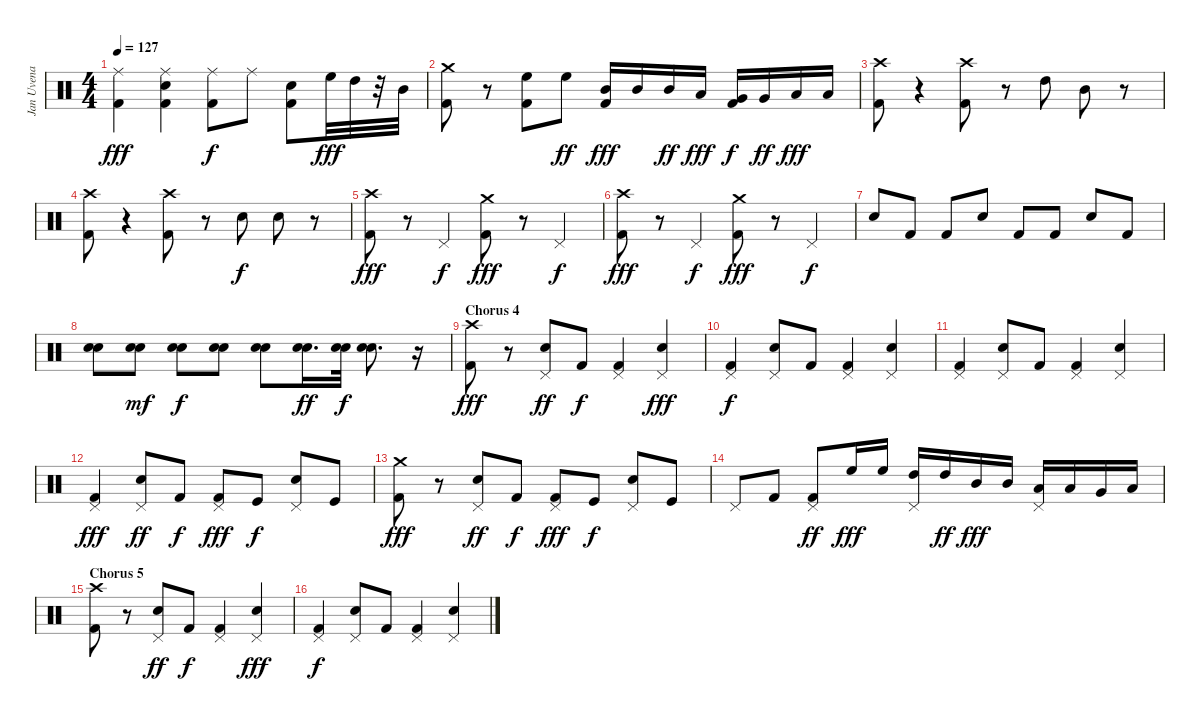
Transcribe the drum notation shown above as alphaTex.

\track ("Jan Uvena" "Jan Uvena") {instrument percussion}
\staff {score}
\articulation defaults
\ts (4 4)
\tempo 127
\clef neutral
\ks c
("Ride (middle)" "Kick (hit) 2").4{dy fff} ("Ride (middle)" "Snare (hit) 2" "Kick (hit) 2").4 ("Ride (middle)" "Kick (hit) 2").8{dy f} "Ride (middle)".8 ("Snare (hit) 2" "Kick (hit) 2").8 "High Floor Tom (hit)".32{dy fff} "High Tom (hit)".32 r.32 "Mid Tom (hit)".32 |
("Crash medium (hit)" "Kick (hit) 2").8 r.8 ("High Floor Tom (hit)" "Kick (hit) 2").8 "High Floor Tom (hit)".8{dy ff} ("Mid Tom (hit)" "Kick (hit) 2").16{dy fff} "Mid Tom (hit)".16 "Mid Tom (hit)".16{dy ff} "Low Tom (hit)".16{dy fff} ("Very Low Tom (hit)" "Kick (hit) 2").16{dy f} "Very Low Tom (hit)".16{dy ff} "Low Floor Tom (hit)".16{dy fff} "Low Floor Tom (hit)".16 |
("Crash high (hit)" "Kick (hit) 2").8 r.4 ("Crash high (hit)" "Kick (hit) 2").8 r.8 "High Tom (hit)".8 "Mid Tom (hit)".8 r.8 |
("Crash high (hit)" "Kick (hit) 2").8 r.4 ("Crash high (hit)" "Kick (hit) 2").8 r.8 "Snare (hit) 2".8{dy f} "Snare (hit) 2".8 r.8 |
("Crash high (hit)" "Kick (hit) 2").8{dy fff} r.8 "Pedal Hi-Hat (hit)".4{dy f} ("Crash medium (hit)" "Kick (hit) 2").8{dy fff} r.8 "Pedal Hi-Hat (hit)".4{dy f} |
("Crash high (hit)" "Kick (hit) 2").8{dy fff} r.8 "Pedal Hi-Hat (hit)".4{dy f} ("Crash medium (hit)" "Kick (hit) 2").8{dy fff} r.8 "Pedal Hi-Hat (hit)".4{dy f} |
"Snare (hit) 2".8 "Kick (hit) 2".8 "Kick (hit) 2".8 "Snare (hit) 2".8 "Kick (hit) 2".8 "Kick (hit) 2".8 "Snare (hit) 2".8 "Kick (hit) 2".8 |
("Snare (hit) 2" "Snare (hit) 2").8 ("Snare (hit) 2" "Snare (hit) 2").8{dy mf} ("Snare (hit) 2" "Snare (hit) 2").8{dy f} ("Snare (hit) 2" "Snare (hit) 2").8 ("Snare (hit) 2" "Snare (hit) 2").8 ("Snare (hit) 2" "Snare (hit) 2").16{d dy ff} ("Snare (hit) 2" "Snare (hit) 2").32{dy f} ("Snare (hit) 2" "Snare (hit) 2").8{d} r.16 |
\section ("" "Chorus 4")
("Crash high (hit)" "Kick (hit) 2").8{dy fff} r.8 ("Pedal Hi-Hat (hit)" "Snare (hit) 2").8{dy ff} "Kick (hit) 2".8{dy f} ("Pedal Hi-Hat (hit)" "Kick (hit) 2").4 ("Pedal Hi-Hat (hit)" "Snare (hit) 2").4{dy fff} |
("Pedal Hi-Hat (hit)" "Kick (hit) 2").4{dy f} ("Pedal Hi-Hat (hit)" "Snare (hit) 2").8 "Kick (hit) 2".8 ("Pedal Hi-Hat (hit)" "Kick (hit) 2").4 ("Pedal Hi-Hat (hit)" "Snare (hit) 2").4 |
("Pedal Hi-Hat (hit)" "Kick (hit) 2").4 ("Pedal Hi-Hat (hit)" "Snare (hit) 2").8 "Kick (hit) 2".8 ("Pedal Hi-Hat (hit)" "Kick (hit) 2").4 ("Pedal Hi-Hat (hit)" "Snare (hit) 2").4 |
("Pedal Hi-Hat (hit)" "Kick (hit) 2").4{dy fff} ("Pedal Hi-Hat (hit)" "Snare (hit) 2").8{dy ff} "Kick (hit) 2".8{dy f} ("Pedal Hi-Hat (hit)" "Kick (hit) 2").8{dy fff} "Kick (hit)".8{dy f} ("Pedal Hi-Hat (hit)" "Snare (hit) 2").8 "Kick (hit)".8 |
("Crash medium (hit)" "Kick (hit) 2").8{dy fff} r.8 ("Pedal Hi-Hat (hit)" "Snare (hit) 2").8{dy ff} "Kick (hit) 2".8{dy f} ("Pedal Hi-Hat (hit)" "Kick (hit) 2").8{dy fff} "Kick (hit)".8{dy f} ("Pedal Hi-Hat (hit)" "Snare (hit) 2").8 "Kick (hit)".8 |
"Pedal Hi-Hat (hit)".8 "Kick (hit) 2".8 ("Pedal Hi-Hat (hit)" "Kick (hit) 2").8{dy ff} "High Floor Tom (hit)".16{dy fff} "High Floor Tom (hit)".16 ("Pedal Hi-Hat (hit)" "High Tom (hit)").16 "High Tom (hit)".16{dy ff} "Mid Tom (hit)".16{dy fff} "Mid Tom (hit)".16 ("Pedal Hi-Hat (hit)" "Low Tom (hit)").16 "Low Tom (hit)".16 "Very Low Tom (hit)".16 "Low Floor Tom (hit)".16 |
\section ("" "Chorus 5")
("Crash high (hit)" "Kick (hit) 2").8 r.8 ("Pedal Hi-Hat (hit)" "Snare (hit) 2").8{dy ff} "Kick (hit) 2".8{dy f} ("Pedal Hi-Hat (hit)" "Kick (hit) 2").4 ("Pedal Hi-Hat (hit)" "Snare (hit) 2").4{dy fff} |
("Pedal Hi-Hat (hit)" "Kick (hit) 2").4{dy f} ("Pedal Hi-Hat (hit)" "Snare (hit) 2").8 "Kick (hit) 2".8 ("Pedal Hi-Hat (hit)" "Kick (hit) 2").4 ("Pedal Hi-Hat (hit)" "Snare (hit) 2").4
